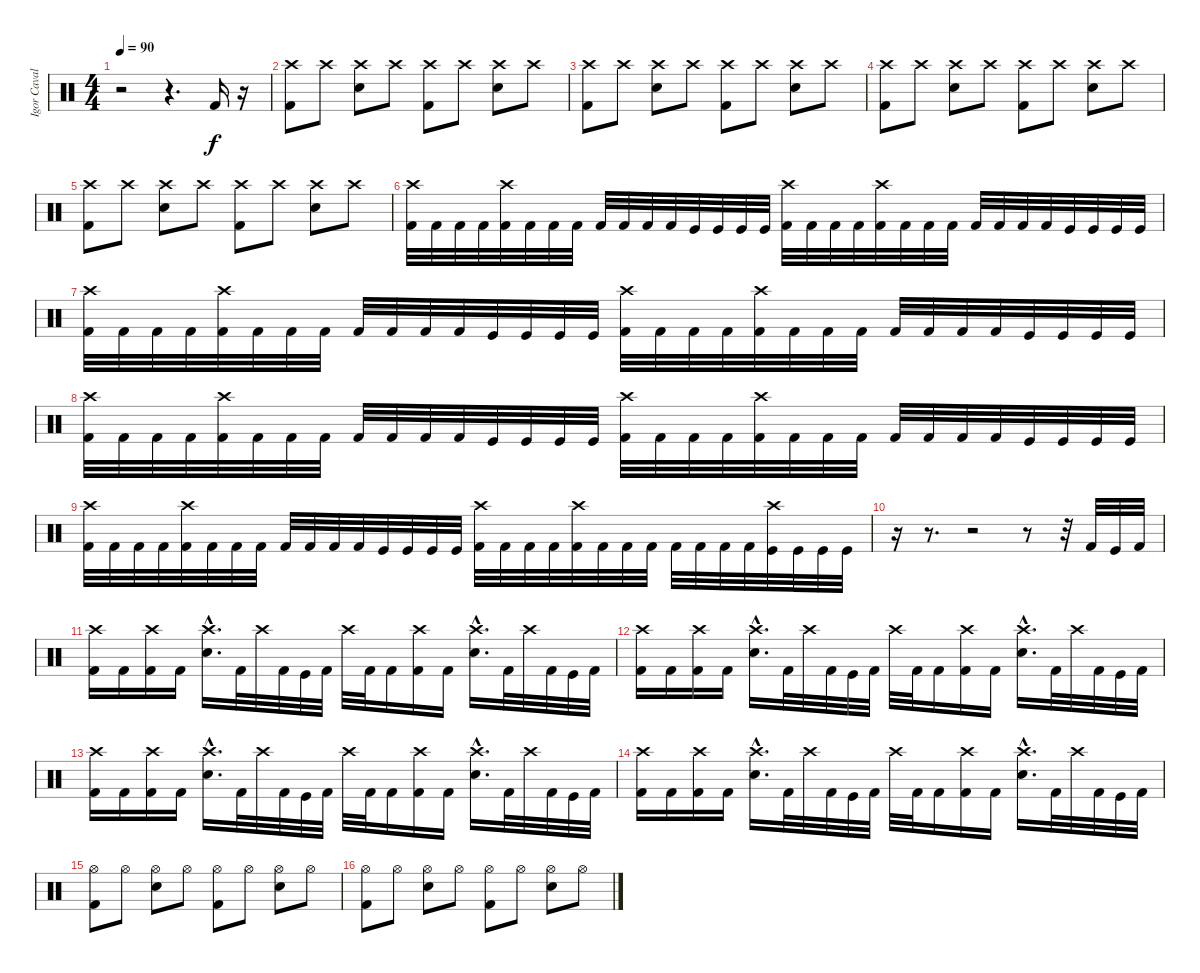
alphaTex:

\track ("Igor Cavalera" "Igor Caval") {instrument percussion}
\staff {score}
\articulation defaults
\ts (4 4)
\tempo 90
\clef neutral
\ks c
r.2{dy f} r.4{d} "Kick (hit) 2".16 r.16 |
\section ("" "")
("Crash high (hit)" "Kick (hit) 2").8 "Crash high (hit)".8 ("Crash high (hit)" "Snare (hit) 2").8 "Crash high (hit)".8 ("Crash high (hit)" "Kick (hit) 2").8 "Crash high (hit)".8 ("Crash high (hit)" "Snare (hit) 2").8 "Crash high (hit)".8 |
("Crash high (hit)" "Kick (hit) 2").8 "Crash high (hit)".8 ("Crash high (hit)" "Snare (hit) 2").8 "Crash high (hit)".8 ("Crash high (hit)" "Kick (hit) 2").8 "Crash high (hit)".8 ("Crash high (hit)" "Snare (hit) 2").8 "Crash high (hit)".8 |
("Crash high (hit)" "Kick (hit) 2").8 "Crash high (hit)".8 ("Crash high (hit)" "Snare (hit) 2").8 "Crash high (hit)".8 ("Crash high (hit)" "Kick (hit) 2").8 "Crash high (hit)".8 ("Crash high (hit)" "Snare (hit) 2").8 "Crash high (hit)".8 |
("Crash high (hit)" "Kick (hit) 2").8 "Crash high (hit)".8 ("Crash high (hit)" "Snare (hit) 2").8 "Crash high (hit)".8 ("Crash high (hit)" "Kick (hit) 2").8 "Crash high (hit)".8 ("Crash high (hit)" "Snare (hit) 2").8 "Crash high (hit)".8 |
\section ("" "")
("Crash high (hit)" "Kick (hit) 2").32 "Kick (hit) 2".32 "Kick (hit) 2".32 "Kick (hit) 2".32 ("Crash high (hit)" "Kick (hit) 2").32 "Kick (hit) 2".32 "Kick (hit) 2".32 "Kick (hit) 2".32 "Kick (hit) 2".32 "Kick (hit) 2".32 "Kick (hit) 2".32 "Kick (hit) 2".32 "Kick (hit)".32 "Kick (hit)".32 "Kick (hit)".32 "Kick (hit)".32 ("Crash high (hit)" "Kick (hit) 2").32 "Kick (hit) 2".32 "Kick (hit) 2".32 "Kick (hit) 2".32 ("Crash high (hit)" "Kick (hit) 2").32 "Kick (hit) 2".32 "Kick (hit) 2".32 "Kick (hit) 2".32 "Kick (hit) 2".32 "Kick (hit) 2".32 "Kick (hit) 2".32 "Kick (hit) 2".32 "Kick (hit)".32 "Kick (hit)".32 "Kick (hit)".32 "Kick (hit)".32 |
("Crash high (hit)" "Kick (hit) 2").32 "Kick (hit) 2".32 "Kick (hit) 2".32 "Kick (hit) 2".32 ("Crash high (hit)" "Kick (hit) 2").32 "Kick (hit) 2".32 "Kick (hit) 2".32 "Kick (hit) 2".32 "Kick (hit) 2".32 "Kick (hit) 2".32 "Kick (hit) 2".32 "Kick (hit) 2".32 "Kick (hit)".32 "Kick (hit)".32 "Kick (hit)".32 "Kick (hit)".32 ("Crash high (hit)" "Kick (hit) 2").32 "Kick (hit) 2".32 "Kick (hit) 2".32 "Kick (hit) 2".32 ("Crash high (hit)" "Kick (hit) 2").32 "Kick (hit) 2".32 "Kick (hit) 2".32 "Kick (hit) 2".32 "Kick (hit) 2".32 "Kick (hit) 2".32 "Kick (hit) 2".32 "Kick (hit) 2".32 "Kick (hit)".32 "Kick (hit)".32 "Kick (hit)".32 "Kick (hit)".32 |
("Crash high (hit)" "Kick (hit) 2").32 "Kick (hit) 2".32 "Kick (hit) 2".32 "Kick (hit) 2".32 ("Crash high (hit)" "Kick (hit) 2").32 "Kick (hit) 2".32 "Kick (hit) 2".32 "Kick (hit) 2".32 "Kick (hit) 2".32 "Kick (hit) 2".32 "Kick (hit) 2".32 "Kick (hit) 2".32 "Kick (hit)".32 "Kick (hit)".32 "Kick (hit)".32 "Kick (hit)".32 ("Crash high (hit)" "Kick (hit) 2").32 "Kick (hit) 2".32 "Kick (hit) 2".32 "Kick (hit) 2".32 ("Crash high (hit)" "Kick (hit) 2").32 "Kick (hit) 2".32 "Kick (hit) 2".32 "Kick (hit) 2".32 "Kick (hit) 2".32 "Kick (hit) 2".32 "Kick (hit) 2".32 "Kick (hit) 2".32 "Kick (hit)".32 "Kick (hit)".32 "Kick (hit)".32 "Kick (hit)".32 |
("Crash high (hit)" "Kick (hit) 2").32 "Kick (hit) 2".32 "Kick (hit) 2".32 "Kick (hit) 2".32 ("Crash high (hit)" "Kick (hit) 2").32 "Kick (hit) 2".32 "Kick (hit) 2".32 "Kick (hit) 2".32 "Kick (hit) 2".32 "Kick (hit) 2".32 "Kick (hit) 2".32 "Kick (hit) 2".32 "Kick (hit)".32 "Kick (hit)".32 "Kick (hit)".32 "Kick (hit)".32 ("Crash high (hit)" "Kick (hit) 2").32 "Kick (hit) 2".32 "Kick (hit) 2".32 "Kick (hit) 2".32 ("Crash high (hit)" "Kick (hit) 2").32 "Kick (hit) 2".32 "Kick (hit) 2".32 "Kick (hit) 2".32 "Kick (hit) 2".32 "Kick (hit) 2".32 "Kick (hit) 2".32 "Kick (hit) 2".32 ("Crash high (hit)" "Kick (hit)").32 "Kick (hit)".32 "Kick (hit)".32 "Kick (hit)".32 |
r.16 r.8{d} r.2 r.8 r.32 "Kick (hit) 2".32 "Kick (hit)".32 "Kick (hit) 2".32 |
\section ("" "")
("Kick (hit) 2" "Crash high (hit)").16 "Kick (hit) 2".16 ("Kick (hit) 2" "Crash high (hit)").16 "Kick (hit) 2".16 ("Snare (hit) 2"{hac} "Crash high (hit)"{hac}).16{d} "Kick (hit) 2".32 "Crash high (hit)".32 "Kick (hit) 2".32 "Kick (hit)".32 "Kick (hit) 2".32 "Crash high (hit)".32 "Kick (hit) 2".32 "Kick (hit) 2".16 ("Kick (hit) 2" "Crash high (hit)").16 "Kick (hit) 2".16 ("Snare (hit) 2"{hac} "Crash high (hit)"{hac}).16{d} "Kick (hit) 2".32 "Crash high (hit)".32 "Kick (hit) 2".32 "Kick (hit)".32 "Kick (hit) 2".32 |
("Kick (hit) 2" "Crash high (hit)").16 "Kick (hit) 2".16 ("Kick (hit) 2" "Crash high (hit)").16 "Kick (hit) 2".16 ("Snare (hit) 2"{hac} "Crash high (hit)"{hac}).16{d} "Kick (hit) 2".32 "Crash high (hit)".32 "Kick (hit) 2".32 "Kick (hit)".32 "Kick (hit) 2".32 "Crash high (hit)".32 "Kick (hit) 2".32 "Kick (hit) 2".16 ("Kick (hit) 2" "Crash high (hit)").16 "Kick (hit) 2".16 ("Snare (hit) 2"{hac} "Crash high (hit)"{hac}).16{d} "Kick (hit) 2".32 "Crash high (hit)".32 "Kick (hit) 2".32 "Kick (hit)".32 "Kick (hit) 2".32 |
("Kick (hit) 2" "Crash high (hit)").16 "Kick (hit) 2".16 ("Kick (hit) 2" "Crash high (hit)").16 "Kick (hit) 2".16 ("Snare (hit) 2"{hac} "Crash high (hit)"{hac}).16{d} "Kick (hit) 2".32 "Crash high (hit)".32 "Kick (hit) 2".32 "Kick (hit)".32 "Kick (hit) 2".32 "Crash high (hit)".32 "Kick (hit) 2".32 "Kick (hit) 2".16 ("Kick (hit) 2" "Crash high (hit)").16 "Kick (hit) 2".16 ("Snare (hit) 2"{hac} "Crash high (hit)"{hac}).16{d} "Kick (hit) 2".32 "Crash high (hit)".32 "Kick (hit) 2".32 "Kick (hit)".32 "Kick (hit) 2".32 |
("Kick (hit) 2" "Crash high (hit)").16 "Kick (hit) 2".16 ("Kick (hit) 2" "Crash high (hit)").16 "Kick (hit) 2".16 ("Snare (hit) 2"{hac} "Crash high (hit)"{hac}).16{d} "Kick (hit) 2".32 "Crash high (hit)".32 "Kick (hit) 2".32 "Kick (hit)".32 "Kick (hit) 2".32 "Crash high (hit)".32 "Kick (hit) 2".32 "Kick (hit) 2".16 ("Kick (hit) 2" "Crash high (hit)").16 "Kick (hit) 2".16 ("Snare (hit) 2"{hac} "Crash high (hit)"{hac}).16{d} "Kick (hit) 2".32 "Crash high (hit)".32 "Kick (hit) 2".32 "Kick (hit)".32 "Kick (hit) 2".32 |
\section ("" "")
("Hi-Hat (open)" "Kick (hit) 2").8 "Hi-Hat (open)".8 ("Hi-Hat (open)" "Snare (hit) 2").8 "Hi-Hat (open)".8 ("Hi-Hat (open)" "Kick (hit) 2").8 "Hi-Hat (open)".8 ("Hi-Hat (open)" "Snare (hit) 2").8 "Hi-Hat (open)".8 |
("Hi-Hat (open)" "Kick (hit) 2").8 "Hi-Hat (open)".8 ("Hi-Hat (open)" "Snare (hit) 2").8 "Hi-Hat (open)".8 ("Hi-Hat (open)" "Kick (hit) 2").8 "Hi-Hat (open)".8 ("Hi-Hat (open)" "Snare (hit) 2").8 "Hi-Hat (open)".8
